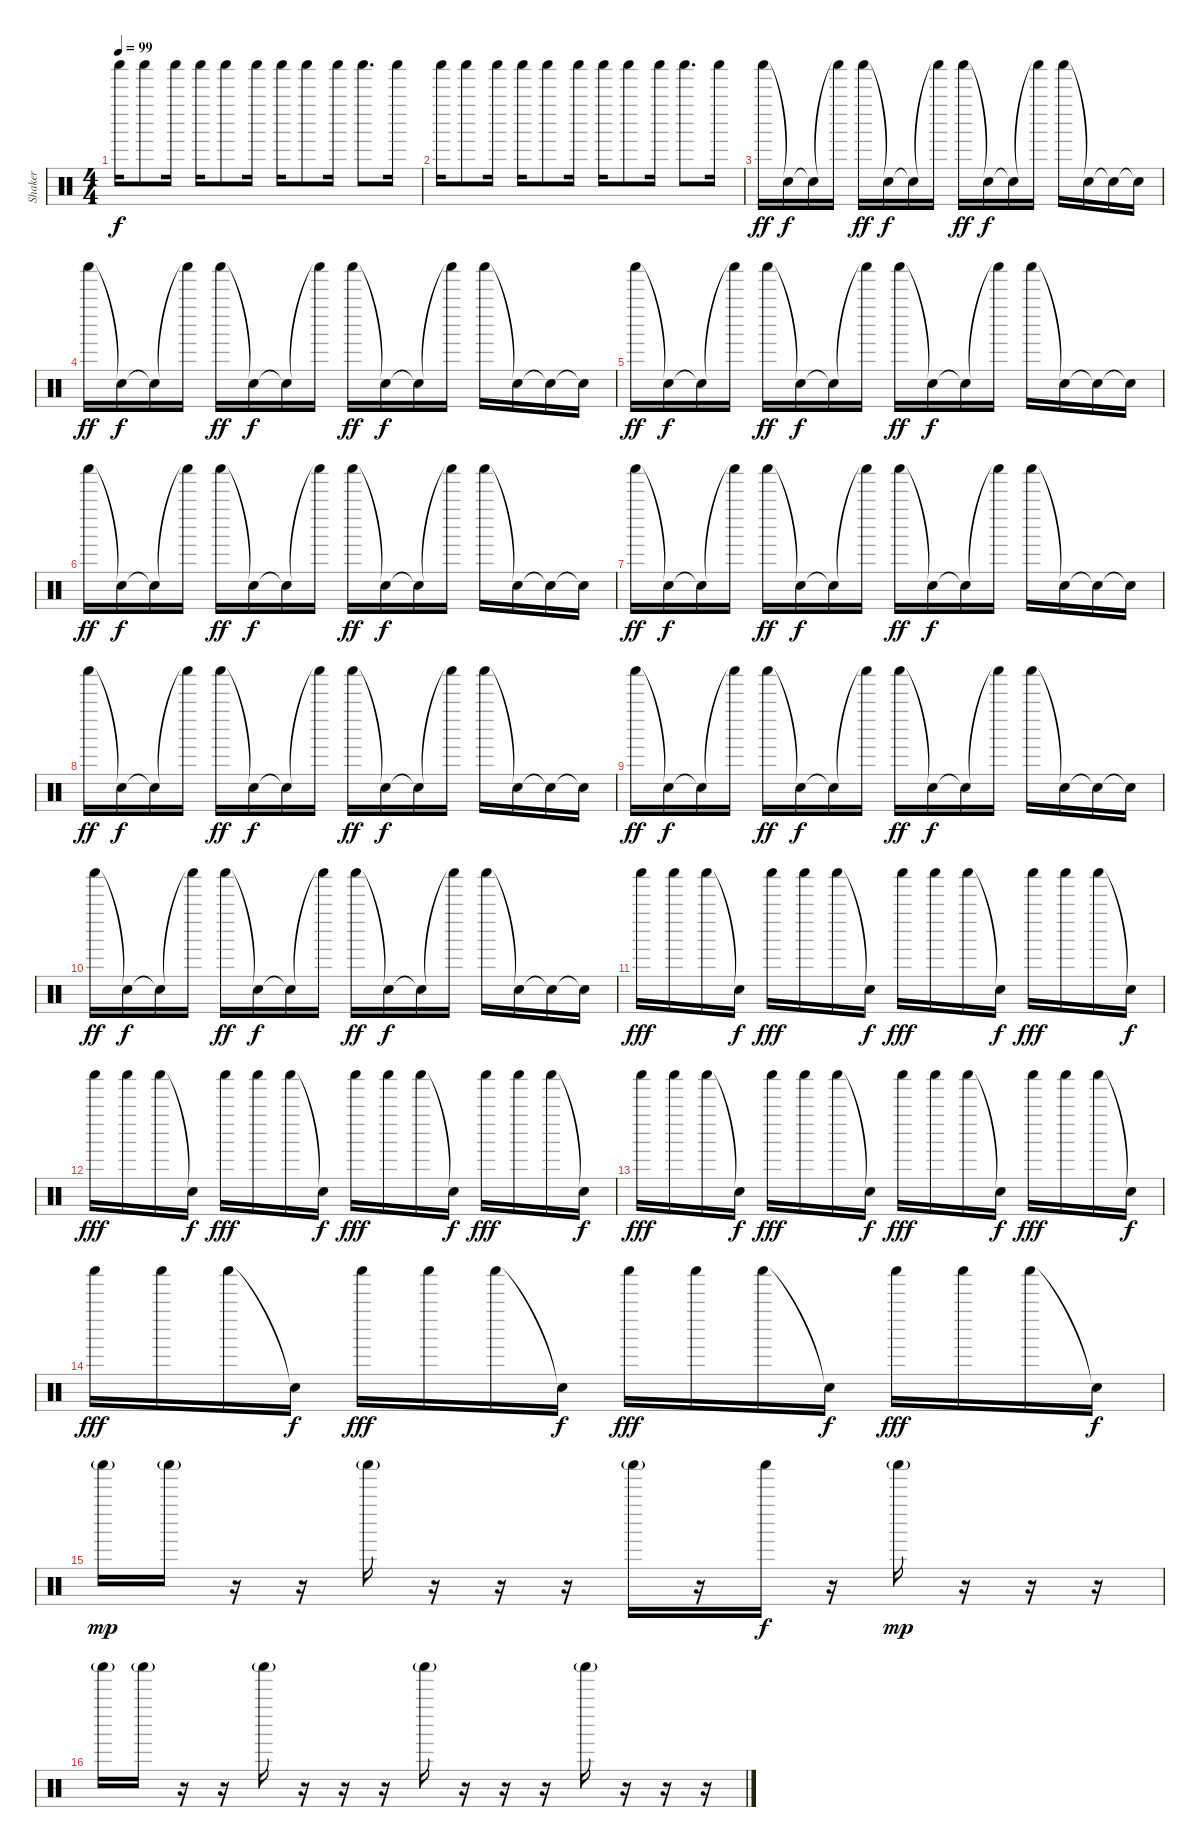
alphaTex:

\track ("Shaker" "Shaker") {instrument percussion}
\staff {score}
\articulation defaults
\ts (4 4)
\tempo 99
\clef neutral
\ks c "Shaker (hit)".16{dy f} "Shaker (hit)".8 "Shaker (hit)".16 "Shaker (hit)".16 "Shaker (hit)".8 "Shaker (hit)".16 "Shaker (hit)".16 "Shaker (hit)".8 "Shaker (hit)".16 "Shaker (hit)".8{d} "Shaker (hit)".16
|
"Shaker (hit)".16 "Shaker (hit)".8 "Shaker (hit)".16 "Shaker (hit)".16 "Shaker (hit)".8 "Shaker (hit)".16 "Shaker (hit)".16 "Shaker (hit)".8 "Shaker (hit)".16 "Shaker (hit)".8{d} "Shaker (hit)".16 |
"Shaker (hit)".16{dy ff} "Snare (hit)"{t}.16{dy f} "Snare (hit)"{t}.16 "Shaker (hit)"{t}.16 "Shaker (hit)".16{dy ff} "Snare (hit)"{t}.16{dy f} "Snare (hit)"{t}.16 "Shaker (hit)"{t}.16 "Shaker (hit)".16{dy ff} "Snare (hit)"{t}.16{dy f} "Snare (hit)"{t}.16 "Shaker (hit)"{t}.16 "Shaker (hit)".16 "Snare (hit)"{t}.16 "Snare (hit)"{t}.16 "Snare (hit)"{t}.16 |
"Shaker (hit)".16{dy ff} "Snare (hit)"{t}.16{dy f} "Snare (hit)"{t}.16 "Shaker (hit)"{t}.16 "Shaker (hit)".16{dy ff} "Snare (hit)"{t}.16{dy f} "Snare (hit)"{t}.16 "Shaker (hit)"{t}.16 "Shaker (hit)".16{dy ff} "Snare (hit)"{t}.16{dy f} "Snare (hit)"{t}.16 "Shaker (hit)"{t}.16 "Shaker (hit)".16 "Snare (hit)"{t}.16 "Snare (hit)"{t}.16 "Snare (hit)"{t}.16 |
"Shaker (hit)".16{dy ff} "Snare (hit)"{t}.16{dy f} "Snare (hit)"{t}.16 "Shaker (hit)"{t}.16 "Shaker (hit)".16{dy ff} "Snare (hit)"{t}.16{dy f} "Snare (hit)"{t}.16 "Shaker (hit)"{t}.16 "Shaker (hit)".16{dy ff} "Snare (hit)"{t}.16{dy f} "Snare (hit)"{t}.16 "Shaker (hit)"{t}.16 "Shaker (hit)".16 "Snare (hit)"{t}.16 "Snare (hit)"{t}.16 "Snare (hit)"{t}.16 |
"Shaker (hit)".16{dy ff} "Snare (hit)"{t}.16{dy f} "Snare (hit)"{t}.16 "Shaker (hit)"{t}.16 "Shaker (hit)".16{dy ff} "Snare (hit)"{t}.16{dy f} "Snare (hit)"{t}.16 "Shaker (hit)"{t}.16 "Shaker (hit)".16{dy ff} "Snare (hit)"{t}.16{dy f} "Snare (hit)"{t}.16 "Shaker (hit)"{t}.16 "Shaker (hit)".16 "Snare (hit)"{t}.16 "Snare (hit)"{t}.16 "Snare (hit)"{t}.16 |
"Shaker (hit)".16{dy ff} "Snare (hit)"{t}.16{dy f} "Snare (hit)"{t}.16 "Shaker (hit)"{t}.16 "Shaker (hit)".16{dy ff} "Snare (hit)"{t}.16{dy f} "Snare (hit)"{t}.16 "Shaker (hit)"{t}.16 "Shaker (hit)".16{dy ff} "Snare (hit)"{t}.16{dy f} "Snare (hit)"{t}.16 "Shaker (hit)"{t}.16 "Shaker (hit)".16 "Snare (hit)"{t}.16 "Snare (hit)"{t}.16 "Snare (hit)"{t}.16 |
"Shaker (hit)".16{dy ff} "Snare (hit)"{t}.16{dy f} "Snare (hit)"{t}.16 "Shaker (hit)"{t}.16 "Shaker (hit)".16{dy ff} "Snare (hit)"{t}.16{dy f} "Snare (hit)"{t}.16 "Shaker (hit)"{t}.16 "Shaker (hit)".16{dy ff} "Snare (hit)"{t}.16{dy f} "Snare (hit)"{t}.16 "Shaker (hit)"{t}.16 "Shaker (hit)".16 "Snare (hit)"{t}.16 "Snare (hit)"{t}.16 "Snare (hit)"{t}.16 |
"Shaker (hit)".16{dy ff} "Snare (hit)"{t}.16{dy f} "Snare (hit)"{t}.16 "Shaker (hit)"{t}.16 "Shaker (hit)".16{dy ff} "Snare (hit)"{t}.16{dy f} "Snare (hit)"{t}.16 "Shaker (hit)"{t}.16 "Shaker (hit)".16{dy ff} "Snare (hit)"{t}.16{dy f} "Snare (hit)"{t}.16 "Shaker (hit)"{t}.16 "Shaker (hit)".16 "Snare (hit)"{t}.16 "Snare (hit)"{t}.16 "Snare (hit)"{t}.16 |
"Shaker (hit)".16{dy ff} "Snare (hit)"{t}.16{dy f} "Snare (hit)"{t}.16 "Shaker (hit)"{t}.16 "Shaker (hit)".16{dy ff} "Snare (hit)"{t}.16{dy f} "Snare (hit)"{t}.16 "Shaker (hit)"{t}.16 "Shaker (hit)".16{dy ff} "Snare (hit)"{t}.16{dy f} "Snare (hit)"{t}.16 "Shaker (hit)"{t}.16 "Shaker (hit)".16 "Snare (hit)"{t}.16 "Snare (hit)"{t}.16 "Snare (hit)"{t}.16 |
"Shaker (hit)".16{dy fff} "Shaker (hit)".16 "Shaker (hit)".16 "Snare (hit)"{t}.16{dy f} "Shaker (hit)".16{dy fff} "Shaker (hit)".16 "Shaker (hit)".16 "Snare (hit)"{t}.16{dy f} "Shaker (hit)".16{dy fff} "Shaker (hit)".16 "Shaker (hit)".16 "Snare (hit)"{t}.16{dy f} "Shaker (hit)".16{dy fff} "Shaker (hit)".16 "Shaker (hit)".16 "Snare (hit)"{t}.16{dy f} |
"Shaker (hit)".16{dy fff} "Shaker (hit)".16 "Shaker (hit)".16 "Snare (hit)"{t}.16{dy f} "Shaker (hit)".16{dy fff} "Shaker (hit)".16 "Shaker (hit)".16 "Snare (hit)"{t}.16{dy f} "Shaker (hit)".16{dy fff} "Shaker (hit)".16 "Shaker (hit)".16 "Snare (hit)"{t}.16{dy f} "Shaker (hit)".16{dy fff} "Shaker (hit)".16 "Shaker (hit)".16 "Snare (hit)"{t}.16{dy f} |
"Shaker (hit)".16{dy fff} "Shaker (hit)".16 "Shaker (hit)".16 "Snare (hit)"{t}.16{dy f} "Shaker (hit)".16{dy fff} "Shaker (hit)".16 "Shaker (hit)".16 "Snare (hit)"{t}.16{dy f} "Shaker (hit)".16{dy fff} "Shaker (hit)".16 "Shaker (hit)".16 "Snare (hit)"{t}.16{dy f} "Shaker (hit)".16{dy fff} "Shaker (hit)".16 "Shaker (hit)".16 "Snare (hit)"{t}.16{dy f} |
"Shaker (hit)".16{dy fff} "Shaker (hit)".16 "Shaker (hit)".16 "Snare (hit)"{t}.16{dy f} "Shaker (hit)".16{dy fff} "Shaker (hit)".16 "Shaker (hit)".16 "Snare (hit)"{t}.16{dy f} "Shaker (hit)".16{dy fff} "Shaker (hit)".16 "Shaker (hit)".16 "Snare (hit)"{t}.16{dy f} "Shaker (hit)".16{dy fff} "Shaker (hit)".16 "Shaker (hit)".16 "Snare (hit)"{t}.16{dy f} |
"Shaker (hit)"{g}.16{dy mp} "Shaker (hit)"{g}.16 r.16 r.16 "Shaker (hit)"{g}.16 r.16 r.16 r.16 "Shaker (hit)"{g}.16 r.16 "Shaker (hit)".16{dy f} r.16 "Shaker (hit)"{g}.16{dy mp} r.16 r.16 r.16 |
"Shaker (hit)"{g}.16 "Shaker (hit)"{g}.16 r.16 r.16 "Shaker (hit)"{g}.16 r.16 r.16 r.16 "Shaker (hit)"{g}.16 r.16 r.16 r.16 "Shaker (hit)"{g}.16 r.16 r.16 r.16
